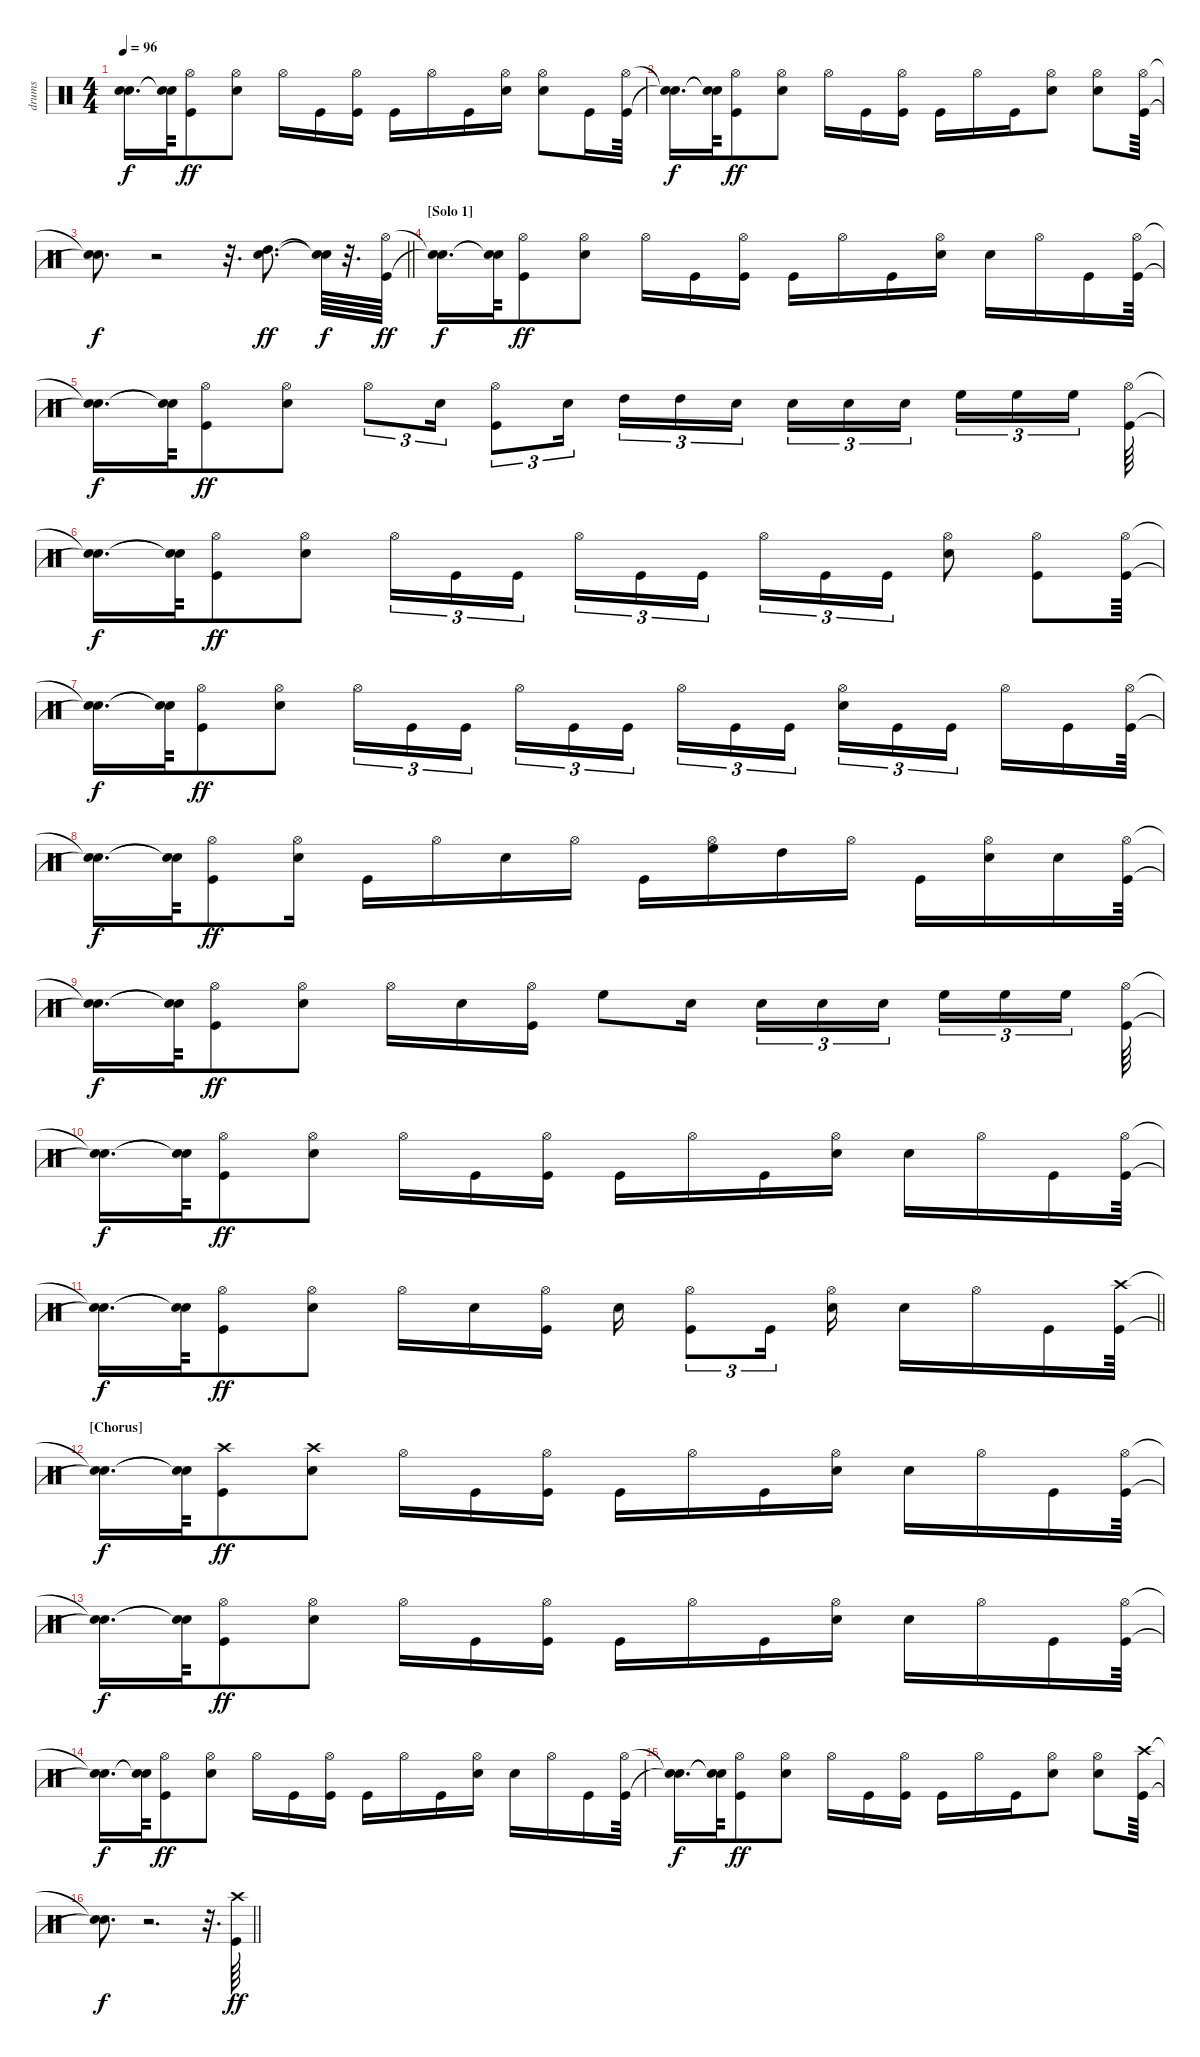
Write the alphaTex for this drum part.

\track ("drums" "drums") {instrument percussion}
\staff {score}
\articulation defaults
\ts (4 4)
\tempo 96
\clef neutral
\ks c
("Snare (hit)"{t} "Snare (hit)"{t}).16{d dy f} ("Snare (hit)"{t} "Snare (hit)"{t}).64 ("Hi-Hat (open)" "Kick (hit)").8{dy ff} ("Hi-Hat (open)" "Snare (hit) 2").8 "Hi-Hat (open)".16 "Kick (hit)".16 ("Hi-Hat (open)" "Kick (hit)").16 "Kick (hit)".16 "Hi-Hat (open)".16 "Kick (hit)".16 ("Hi-Hat (open)" "Snare (hit) 2").16 ("Hi-Hat (open)" "Snare (hit) 2").8 "Kick (hit)".16 ("Hi-Hat (open)" "Kick (hit)").64 |
("Snare (hit)"{t} "Snare (hit)"{t}).16{d dy f} ("Snare (hit)"{t} "Snare (hit)"{t}).64 ("Hi-Hat (open)" "Kick (hit)").8{dy ff} ("Hi-Hat (open)" "Snare (hit) 2").8 "Hi-Hat (open)".16 "Kick (hit)".16 ("Hi-Hat (open)" "Kick (hit)").16 "Kick (hit)".16 "Hi-Hat (open)".16 "Kick (hit)".16 ("Hi-Hat (open)" "Snare (hit) 2").8 ("Hi-Hat (open)" "Snare (hit) 2").8 ("Hi-Hat (open)" "Kick (hit)").64 |
\barLineRight lightlight
("Snare (hit)"{t} "Snare (hit)"{t}).8{d dy f} r.2 r.32{d} ("Snare (hit) 2" "High Tom (hit)").8{d dy ff} ("Snare (hit)"{t} "Snare (hit)"{t}).64{dy f} r.32{d} ("Hi-Hat (open)" "Kick (hit)").64{dy ff} |
\section ("" "[Solo 1]")
("Snare (hit)"{t} "Snare (hit)"{t}).16{d dy f} ("Snare (hit)"{t} "Snare (hit)"{t}).64 ("Hi-Hat (open)" "Kick (hit)").8{dy ff} ("Hi-Hat (open)" "Snare (hit) 2").8 "Hi-Hat (open)".16 "Kick (hit)".16 ("Hi-Hat (open)" "Kick (hit)").16 "Kick (hit)".16 "Hi-Hat (open)".16 "Kick (hit)".16 ("Hi-Hat (open)" "Snare (hit) 2").16 "Snare (hit) 2".16 "Hi-Hat (open)".16 "Kick (hit)".16 ("Hi-Hat (open)" "Kick (hit)").64 |
("Snare (hit)"{t} "Snare (hit)"{t}).16{d dy f} ("Snare (hit)"{t} "Snare (hit)"{t}).64 ("Hi-Hat (open)" "Kick (hit)").8{dy ff} ("Hi-Hat (open)" "Snare (hit) 2").8 "Hi-Hat (open)".8{tu (3 2)} "Snare (hit) 2".16{tu (3 2)} ("Hi-Hat (open)" "Kick (hit)").8{tu (3 2)} "Snare (hit) 2".16{tu (3 2)} "High Tom (hit)".16{tu (3 2)} "High Tom (hit)".16{tu (3 2)} "Snare (hit) 2".16{tu (3 2)} "Snare (hit) 2".16{tu (3 2)} "Snare (hit) 2".16{tu (3 2)} "Snare (hit) 2".16{tu (3 2)} "High Floor Tom (hit)".16{tu (3 2)} "High Floor Tom (hit)".16{tu (3 2)} "High Floor Tom (hit)".16{tu (3 2)} ("Hi-Hat (open)" "Kick (hit)").64 |
("Snare (hit)"{t} "Snare (hit)"{t}).16{d dy f} ("Snare (hit)"{t} "Snare (hit)"{t}).64 ("Hi-Hat (open)" "Kick (hit)").8{dy ff} ("Hi-Hat (open)" "Snare (hit) 2").8 "Hi-Hat (open)".16{tu (3 2)} "Kick (hit)".16{tu (3 2)} "Kick (hit)".16{tu (3 2)} "Hi-Hat (open)".16{tu (3 2)} "Kick (hit)".16{tu (3 2)} "Kick (hit)".16{tu (3 2)} "Hi-Hat (open)".16{tu (3 2)} "Kick (hit)".16{tu (3 2)} "Kick (hit)".16{tu (3 2)} ("Hi-Hat (open)" "Snare (hit) 2").8 ("Hi-Hat (open)" "Kick (hit)").8 ("Hi-Hat (open)" "Kick (hit)").64 |
("Snare (hit)"{t} "Snare (hit)"{t}).16{d dy f} ("Snare (hit)"{t} "Snare (hit)"{t}).64 ("Hi-Hat (open)" "Kick (hit)").8{dy ff} ("Hi-Hat (open)" "Snare (hit) 2").8 "Hi-Hat (open)".16{tu (3 2)} "Kick (hit)".16{tu (3 2)} "Kick (hit)".16{tu (3 2)} "Hi-Hat (open)".16{tu (3 2)} "Kick (hit)".16{tu (3 2)} "Kick (hit)".16{tu (3 2)} "Hi-Hat (open)".16{tu (3 2)} "Kick (hit)".16{tu (3 2)} "Kick (hit)".16{tu (3 2)} ("Hi-Hat (open)" "Snare (hit) 2").16{tu (3 2)} "Kick (hit)".16{tu (3 2)} "Kick (hit)".16{tu (3 2)} "Hi-Hat (open)".16 "Kick (hit)".16 ("Hi-Hat (open)" "Kick (hit)").64 |
("Snare (hit)"{t} "Snare (hit)"{t}).16{d dy f} ("Snare (hit)"{t} "Snare (hit)"{t}).64 ("Hi-Hat (open)" "Kick (hit)").8{dy ff} ("Hi-Hat (open)" "Snare (hit) 2").16 "Kick (hit)".16 "Hi-Hat (open)".16 "Snare (hit) 2".16 "Hi-Hat (open)".16 "Kick (hit)".16 ("Hi-Hat (open)" "High Floor Tom (hit)").16 "High Tom (hit)".16 "Hi-Hat (open)".16 "Kick (hit)".16 ("Hi-Hat (open)" "Snare (hit) 2").16 "Snare (hit) 2".16 ("Hi-Hat (open)" "Kick (hit)").64 |
("Snare (hit)"{t} "Snare (hit)"{t}).16{d dy f} ("Snare (hit)"{t} "Snare (hit)"{t}).64 ("Hi-Hat (open)" "Kick (hit)").8{dy ff} ("Hi-Hat (open)" "Snare (hit) 2").8 "Hi-Hat (open)".16 "Snare (hit) 2".16 ("Hi-Hat (open)" "Kick (hit)").16 "High Floor Tom (hit)".8 "Snare (hit) 2".16 "Snare (hit) 2".16{tu (3 2)} "Snare (hit) 2".16{tu (3 2)} "Snare (hit) 2".16{tu (3 2)} "High Floor Tom (hit)".16{tu (3 2)} "High Floor Tom (hit)".16{tu (3 2)} "High Floor Tom (hit)".16{tu (3 2)} ("Hi-Hat (open)" "Kick (hit)").64 |
("Snare (hit)"{t} "Snare (hit)"{t}).16{d dy f} ("Snare (hit)"{t} "Snare (hit)"{t}).64 ("Hi-Hat (open)" "Kick (hit)").8{dy ff} ("Hi-Hat (open)" "Snare (hit) 2").8 "Hi-Hat (open)".16 "Kick (hit)".16 ("Hi-Hat (open)" "Kick (hit)").16 "Kick (hit)".16 "Hi-Hat (open)".16 "Kick (hit)".16 ("Hi-Hat (open)" "Snare (hit) 2").16 "Snare (hit) 2".16 "Hi-Hat (open)".16 "Kick (hit)".16 ("Hi-Hat (open)" "Kick (hit)").64 |
\barLineRight lightlight
("Snare (hit)"{t} "Snare (hit)"{t}).16{d dy f} ("Snare (hit)"{t} "Snare (hit)"{t}).64 ("Hi-Hat (open)" "Kick (hit)").8{dy ff} ("Hi-Hat (open)" "Snare (hit) 2").8 "Hi-Hat (open)".16 "Snare (hit) 2".16 ("Hi-Hat (open)" "Kick (hit)").16 "Snare (hit) 2".16 ("Hi-Hat (open)" "Kick (hit)").8{tu (3 2)} "Kick (hit)".16{tu (3 2)} ("Hi-Hat (open)" "Snare (hit) 2").16 "Snare (hit) 2".16 "Hi-Hat (open)".16 "Kick (hit)".16 ("Crash high (hit)" "Kick (hit)").64 |
\section ("" "[Chorus]")
("Snare (hit)"{t} "Snare (hit)"{t}).16{d dy f} ("Snare (hit)"{t} "Snare (hit)"{t}).64 ("Crash high (hit)" "Kick (hit)").8{dy ff} ("Crash high (hit)" "Snare (hit) 2").8 "Hi-Hat (open)".16 "Kick (hit)".16 ("Hi-Hat (open)" "Kick (hit)").16 "Kick (hit)".16 "Hi-Hat (open)".16 "Kick (hit)".16 ("Hi-Hat (open)" "Snare (hit) 2").16 "Snare (hit) 2".16 "Hi-Hat (open)".16 "Kick (hit)".16 ("Hi-Hat (open)" "Kick (hit)").64 |
("Snare (hit)"{t} "Snare (hit)"{t}).16{d dy f} ("Snare (hit)"{t} "Snare (hit)"{t}).64 ("Hi-Hat (open)" "Kick (hit)").8{dy ff} ("Hi-Hat (open)" "Snare (hit) 2").8 "Hi-Hat (open)".16 "Kick (hit)".16 ("Hi-Hat (open)" "Kick (hit)").16 "Kick (hit)".16 "Hi-Hat (open)".16 "Kick (hit)".16 ("Hi-Hat (open)" "Snare (hit) 2").16 "Snare (hit) 2".16 "Hi-Hat (open)".16 "Kick (hit)".16 ("Hi-Hat (open)" "Kick (hit)").64 |
("Snare (hit)"{t} "Snare (hit)"{t}).16{d dy f} ("Snare (hit)"{t} "Snare (hit)"{t}).64 ("Hi-Hat (open)" "Kick (hit)").8{dy ff} ("Hi-Hat (open)" "Snare (hit) 2").8 "Hi-Hat (open)".16 "Kick (hit)".16 ("Hi-Hat (open)" "Kick (hit)").16 "Kick (hit)".16 "Hi-Hat (open)".16 "Kick (hit)".16 ("Hi-Hat (open)" "Snare (hit) 2").16 "Snare (hit) 2".16 "Hi-Hat (open)".16 "Kick (hit)".16 ("Hi-Hat (open)" "Kick (hit)").64 |
("Snare (hit)"{t} "Snare (hit)"{t}).16{d dy f} ("Snare (hit)"{t} "Snare (hit)"{t}).64 ("Hi-Hat (open)" "Kick (hit)").8{dy ff} ("Hi-Hat (open)" "Snare (hit) 2").8 "Hi-Hat (open)".16 "Kick (hit)".16 ("Hi-Hat (open)" "Kick (hit)").16 "Kick (hit)".16 "Hi-Hat (open)".16 "Kick (hit)".16 ("Hi-Hat (open)" "Snare (hit) 2").8 ("Hi-Hat (open)" "Snare (hit) 2").8 ("Crash high (hit)" "Kick (hit)").64 |
\barLineRight lightlight
("Snare (hit)"{t} "Snare (hit)"{t}).8{d dy f} r.2{d} r.32{d} ("Crash high (hit)" "Kick (hit)").64{dy ff}
